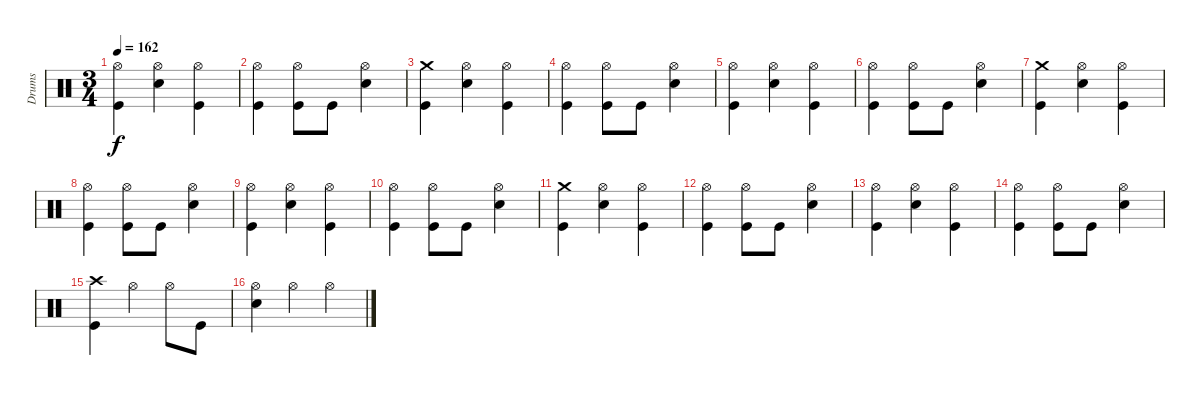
\track ("Drums" "Drums") {instrument percussion}
\staff {score}
\articulation defaults
\ts (3 4)
\tempo 162
\clef neutral
\ks c
("Hi-Hat (open)" "Kick (hit)").4{dy f} ("Hi-Hat (open)" "Snare (hit) 2").4 ("Hi-Hat (open)" "Kick (hit)").4 |
("Hi-Hat (open)" "Kick (hit)").4 ("Hi-Hat (open)" "Kick (hit)").8 "Kick (hit)".8 ("Hi-Hat (open)" "Snare (hit) 2").4 |
("Crash medium (hit)" "Kick (hit)").4 ("Hi-Hat (open)" "Snare (hit) 2").4 ("Hi-Hat (open)" "Kick (hit)").4 |
("Hi-Hat (open)" "Kick (hit)").4 ("Hi-Hat (open)" "Kick (hit)").8 "Kick (hit)".8 ("Hi-Hat (open)" "Snare (hit) 2").4 |
("Hi-Hat (open)" "Kick (hit)").4 ("Hi-Hat (open)" "Snare (hit) 2").4 ("Hi-Hat (open)" "Kick (hit)").4 |
("Hi-Hat (open)" "Kick (hit)").4 ("Hi-Hat (open)" "Kick (hit)").8 "Kick (hit)".8 ("Hi-Hat (open)" "Snare (hit) 2").4 |
("Crash medium (hit)" "Kick (hit)").4 ("Hi-Hat (open)" "Snare (hit) 2").4 ("Hi-Hat (open)" "Kick (hit)").4 |
("Hi-Hat (open)" "Kick (hit)").4 ("Hi-Hat (open)" "Kick (hit)").8 "Kick (hit)".8 ("Hi-Hat (open)" "Snare (hit) 2").4 |
("Hi-Hat (open)" "Kick (hit)").4 ("Hi-Hat (open)" "Snare (hit) 2").4 ("Hi-Hat (open)" "Kick (hit)").4 |
("Hi-Hat (open)" "Kick (hit)").4 ("Hi-Hat (open)" "Kick (hit)").8 "Kick (hit)".8 ("Hi-Hat (open)" "Snare (hit) 2").4 |
("Crash medium (hit)" "Kick (hit)").4 ("Hi-Hat (open)" "Snare (hit) 2").4 ("Hi-Hat (open)" "Kick (hit)").4 |
("Hi-Hat (open)" "Kick (hit)").4 ("Hi-Hat (open)" "Kick (hit)").8 "Kick (hit)".8 ("Hi-Hat (open)" "Snare (hit) 2").4 |
("Hi-Hat (open)" "Kick (hit)").4 ("Hi-Hat (open)" "Snare (hit) 2").4 ("Hi-Hat (open)" "Kick (hit)").4 |
("Hi-Hat (open)" "Kick (hit)").4 ("Hi-Hat (open)" "Kick (hit)").8 "Kick (hit)".8 ("Hi-Hat (open)" "Snare (hit) 2").4 |
("Crash high (hit)" "Kick (hit)").4 "Hi-Hat (open)".4 "Hi-Hat (open)".8 "Kick (hit)".8 |
("Hi-Hat (open)" "Snare (hit) 2").4 "Hi-Hat (open)".4 "Hi-Hat (open)".4
